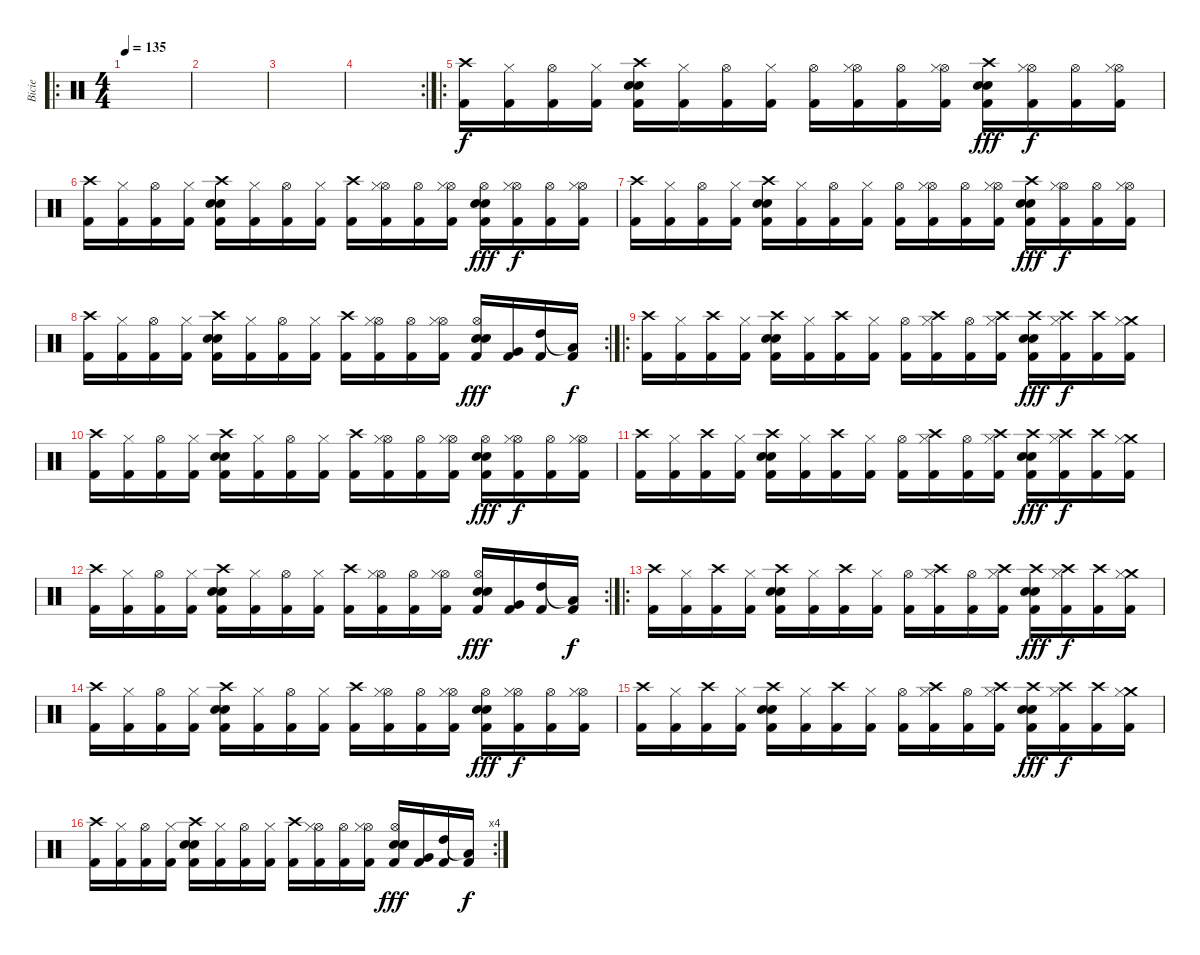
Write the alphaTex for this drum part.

\track ("Bicie" "Bicie") {instrument percussion}
\staff {score}
\articulation defaults
\ro
\ts (4 4)
\tempo 135
\clef neutral
\ks c
|
|
|
\rc 2
|
\ro
("Crash high (hit)" "Kick (hit) 2").16 ("Hi-Hat (closed)" "Kick (hit) 2").16 ("Hi-Hat (open)" "Kick (hit) 2").16 ("Hi-Hat (closed)" "Kick (hit) 2").16 ("Crash high (hit)" "Electric Snare (hit)" "Electric Snare (hit)" "Kick (hit) 2").16 ("Hi-Hat (closed)" "Kick (hit) 2").16 ("Hi-Hat (open)" "Kick (hit) 2").16 ("Hi-Hat (closed)" "Kick (hit) 2").16 ("Hi-Hat (open)" "Kick (hit) 2").16 ("Hi-Hat (open)" "Hi-Hat (closed)" "Kick (hit) 2").16 ("Hi-Hat (open)" "Kick (hit) 2").16 ("Hi-Hat (open)" "Hi-Hat (closed)" "Kick (hit) 2").16 ("Crash high (hit)" "Electric Snare (hit)" "Electric Snare (hit)" "Kick (hit) 2").16{dy fff} ("Hi-Hat (open)" "Hi-Hat (closed)" "Kick (hit) 2").16{dy f} ("Hi-Hat (open)" "Kick (hit) 2").16 ("Hi-Hat (open)" "Hi-Hat (closed)" "Kick (hit) 2").16 |
("Crash high (hit)" "Kick (hit) 2").16 ("Hi-Hat (closed)" "Kick (hit) 2").16 ("Hi-Hat (open)" "Kick (hit) 2").16 ("Hi-Hat (closed)" "Kick (hit) 2").16 ("Crash high (hit)" "Electric Snare (hit)" "Electric Snare (hit)" "Kick (hit) 2").16 ("Hi-Hat (closed)" "Kick (hit) 2").16 ("Hi-Hat (open)" "Kick (hit) 2").16 ("Hi-Hat (closed)" "Kick (hit) 2").16 ("Crash high (hit)" "Kick (hit) 2").16 ("Hi-Hat (open)" "Hi-Hat (closed)" "Kick (hit) 2").16 ("Hi-Hat (open)" "Kick (hit) 2").16 ("Hi-Hat (open)" "Hi-Hat (closed)" "Kick (hit) 2").16 ("Hi-Hat (open)" "Electric Snare (hit)" "Electric Snare (hit)" "Kick (hit) 2").16{dy fff} ("Hi-Hat (open)" "Hi-Hat (closed)" "Kick (hit) 2").16{dy f} ("Hi-Hat (open)" "Kick (hit) 2").16 ("Hi-Hat (open)" "Hi-Hat (closed)" "Kick (hit) 2").16 |
("Crash high (hit)" "Kick (hit) 2").16 ("Hi-Hat (closed)" "Kick (hit) 2").16 ("Hi-Hat (open)" "Kick (hit) 2").16 ("Hi-Hat (closed)" "Kick (hit) 2").16 ("Crash high (hit)" "Electric Snare (hit)" "Electric Snare (hit)" "Kick (hit) 2").16 ("Hi-Hat (closed)" "Kick (hit) 2").16 ("Hi-Hat (open)" "Kick (hit) 2").16 ("Hi-Hat (closed)" "Kick (hit) 2").16 ("Hi-Hat (open)" "Kick (hit) 2").16 ("Hi-Hat (open)" "Hi-Hat (closed)" "Kick (hit) 2").16 ("Hi-Hat (open)" "Kick (hit) 2").16 ("Hi-Hat (open)" "Hi-Hat (closed)" "Kick (hit) 2").16 ("Crash high (hit)" "Electric Snare (hit)" "Electric Snare (hit)" "Kick (hit) 2").16{dy fff} ("Hi-Hat (open)" "Hi-Hat (closed)" "Kick (hit) 2").16{dy f} ("Hi-Hat (open)" "Kick (hit) 2").16 ("Hi-Hat (open)" "Hi-Hat (closed)" "Kick (hit) 2").16 |
\rc 2
("Crash high (hit)" "Kick (hit) 2").16 ("Hi-Hat (closed)" "Kick (hit) 2").16 ("Hi-Hat (open)" "Kick (hit) 2").16 ("Hi-Hat (closed)" "Kick (hit) 2").16 ("Crash high (hit)" "Electric Snare (hit)" "Electric Snare (hit)" "Kick (hit) 2").16 ("Hi-Hat (closed)" "Kick (hit) 2").16 ("Hi-Hat (open)" "Kick (hit) 2").16 ("Hi-Hat (closed)" "Kick (hit) 2").16 ("Crash high (hit)" "Kick (hit) 2").16 ("Hi-Hat (open)" "Hi-Hat (closed)" "Kick (hit) 2").16 ("Hi-Hat (open)" "Kick (hit) 2").16 ("Hi-Hat (open)" "Hi-Hat (closed)" "Kick (hit) 2").16 ("Hi-Hat (open)" "Electric Snare (hit)" "Electric Snare (hit)" "Kick (hit) 2").16{dy fff} ("Very Low Tom (hit)" "Kick (hit) 2").16 ("High Tom (hit)" "Kick (hit) 2").16 ("Low Tom (hit)"{t} "Kick (hit) 2").16{dy f} |
\ro
("Crash high (hit)" "Kick (hit) 2").16 ("Hi-Hat (closed)" "Kick (hit) 2").16 ("Crash high (hit)" "Kick (hit) 2").16 ("Hi-Hat (closed)" "Kick (hit) 2").16 ("Crash high (hit)" "Electric Snare (hit)" "Electric Snare (hit)" "Kick (hit) 2").16 ("Hi-Hat (closed)" "Kick (hit) 2").16 ("Crash high (hit)" "Kick (hit) 2").16 ("Hi-Hat (closed)" "Kick (hit) 2").16 ("Hi-Hat (open)" "Kick (hit) 2").16 ("Crash high (hit)" "Hi-Hat (closed)" "Kick (hit) 2").16 ("Hi-Hat (open)" "Kick (hit) 2").16 ("Crash high (hit)" "Hi-Hat (closed)" "Kick (hit) 2").16 ("Crash high (hit)" "Electric Snare (hit)" "Electric Snare (hit)" "Kick (hit) 2").16{dy fff} ("Crash high (hit)" "Hi-Hat (closed)" "Kick (hit) 2").16{dy f} ("Crash high (hit)" "Kick (hit) 2").16 ("Crash medium (hit)" "Hi-Hat (closed)" "Kick (hit) 2").16 |
("Crash high (hit)" "Kick (hit) 2").16 ("Hi-Hat (closed)" "Kick (hit) 2").16 ("Hi-Hat (open)" "Kick (hit) 2").16 ("Hi-Hat (closed)" "Kick (hit) 2").16 ("Crash high (hit)" "Electric Snare (hit)" "Electric Snare (hit)" "Kick (hit) 2").16 ("Hi-Hat (closed)" "Kick (hit) 2").16 ("Hi-Hat (open)" "Kick (hit) 2").16 ("Hi-Hat (closed)" "Kick (hit) 2").16 ("Crash high (hit)" "Kick (hit) 2").16 ("Hi-Hat (open)" "Hi-Hat (closed)" "Kick (hit) 2").16 ("Hi-Hat (open)" "Kick (hit) 2").16 ("Hi-Hat (open)" "Hi-Hat (closed)" "Kick (hit) 2").16 ("Hi-Hat (open)" "Electric Snare (hit)" "Electric Snare (hit)" "Kick (hit) 2").16{dy fff} ("Hi-Hat (open)" "Hi-Hat (closed)" "Kick (hit) 2").16{dy f} ("Hi-Hat (open)" "Kick (hit) 2").16 ("Hi-Hat (open)" "Hi-Hat (closed)" "Kick (hit) 2").16 |
("Crash high (hit)" "Kick (hit) 2").16 ("Hi-Hat (closed)" "Kick (hit) 2").16 ("Crash high (hit)" "Kick (hit) 2").16 ("Hi-Hat (closed)" "Kick (hit) 2").16 ("Crash high (hit)" "Electric Snare (hit)" "Electric Snare (hit)" "Kick (hit) 2").16 ("Hi-Hat (closed)" "Kick (hit) 2").16 ("Crash high (hit)" "Kick (hit) 2").16 ("Hi-Hat (closed)" "Kick (hit) 2").16 ("Hi-Hat (open)" "Kick (hit) 2").16 ("Crash high (hit)" "Hi-Hat (closed)" "Kick (hit) 2").16 ("Hi-Hat (open)" "Kick (hit) 2").16 ("Crash high (hit)" "Hi-Hat (closed)" "Kick (hit) 2").16 ("Crash high (hit)" "Electric Snare (hit)" "Electric Snare (hit)" "Kick (hit) 2").16{dy fff} ("Crash high (hit)" "Hi-Hat (closed)" "Kick (hit) 2").16{dy f} ("Crash high (hit)" "Kick (hit) 2").16 ("Crash medium (hit)" "Hi-Hat (closed)" "Kick (hit) 2").16 |
\rc 2
("Crash high (hit)" "Kick (hit) 2").16 ("Hi-Hat (closed)" "Kick (hit) 2").16 ("Hi-Hat (open)" "Kick (hit) 2").16 ("Hi-Hat (closed)" "Kick (hit) 2").16 ("Crash high (hit)" "Electric Snare (hit)" "Electric Snare (hit)" "Kick (hit) 2").16 ("Hi-Hat (closed)" "Kick (hit) 2").16 ("Hi-Hat (open)" "Kick (hit) 2").16 ("Hi-Hat (closed)" "Kick (hit) 2").16 ("Crash high (hit)" "Kick (hit) 2").16 ("Hi-Hat (open)" "Hi-Hat (closed)" "Kick (hit) 2").16 ("Hi-Hat (open)" "Kick (hit) 2").16 ("Hi-Hat (open)" "Hi-Hat (closed)" "Kick (hit) 2").16 ("Hi-Hat (open)" "Electric Snare (hit)" "Electric Snare (hit)" "Kick (hit) 2").16{dy fff} ("Very Low Tom (hit)" "Kick (hit) 2").16 ("High Tom (hit)" "Kick (hit) 2").16 ("Low Tom (hit)"{t} "Kick (hit) 2").16{dy f} |
\ro
("Crash high (hit)" "Kick (hit) 2").16{volume 10} ("Hi-Hat (closed)" "Kick (hit) 2").16 ("Crash high (hit)" "Kick (hit) 2").16 ("Hi-Hat (closed)" "Kick (hit) 2").16 ("Crash high (hit)" "Electric Snare (hit)" "Electric Snare (hit)" "Kick (hit) 2").16 ("Hi-Hat (closed)" "Kick (hit) 2").16 ("Crash high (hit)" "Kick (hit) 2").16 ("Hi-Hat (closed)" "Kick (hit) 2").16 ("Hi-Hat (open)" "Kick (hit) 2").16 ("Crash high (hit)" "Hi-Hat (closed)" "Kick (hit) 2").16 ("Hi-Hat (open)" "Kick (hit) 2").16 ("Crash high (hit)" "Hi-Hat (closed)" "Kick (hit) 2").16 ("Crash high (hit)" "Electric Snare (hit)" "Electric Snare (hit)" "Kick (hit) 2").16{dy fff} ("Crash high (hit)" "Hi-Hat (closed)" "Kick (hit) 2").16{dy f} ("Crash high (hit)" "Kick (hit) 2").16 ("Crash medium (hit)" "Hi-Hat (closed)" "Kick (hit) 2").16 |
("Crash high (hit)" "Kick (hit) 2").16 ("Hi-Hat (closed)" "Kick (hit) 2").16 ("Hi-Hat (open)" "Kick (hit) 2").16 ("Hi-Hat (closed)" "Kick (hit) 2").16 ("Crash high (hit)" "Electric Snare (hit)" "Electric Snare (hit)" "Kick (hit) 2").16 ("Hi-Hat (closed)" "Kick (hit) 2").16 ("Hi-Hat (open)" "Kick (hit) 2").16 ("Hi-Hat (closed)" "Kick (hit) 2").16 ("Crash high (hit)" "Kick (hit) 2").16 ("Hi-Hat (open)" "Hi-Hat (closed)" "Kick (hit) 2").16 ("Hi-Hat (open)" "Kick (hit) 2").16 ("Hi-Hat (open)" "Hi-Hat (closed)" "Kick (hit) 2").16 ("Hi-Hat (open)" "Electric Snare (hit)" "Electric Snare (hit)" "Kick (hit) 2").16{dy fff} ("Hi-Hat (open)" "Hi-Hat (closed)" "Kick (hit) 2").16{dy f} ("Hi-Hat (open)" "Kick (hit) 2").16 ("Hi-Hat (open)" "Hi-Hat (closed)" "Kick (hit) 2").16 |
("Crash high (hit)" "Kick (hit) 2").16 ("Hi-Hat (closed)" "Kick (hit) 2").16 ("Crash high (hit)" "Kick (hit) 2").16 ("Hi-Hat (closed)" "Kick (hit) 2").16 ("Crash high (hit)" "Electric Snare (hit)" "Electric Snare (hit)" "Kick (hit) 2").16 ("Hi-Hat (closed)" "Kick (hit) 2").16 ("Crash high (hit)" "Kick (hit) 2").16 ("Hi-Hat (closed)" "Kick (hit) 2").16 ("Hi-Hat (open)" "Kick (hit) 2").16 ("Crash high (hit)" "Hi-Hat (closed)" "Kick (hit) 2").16 ("Hi-Hat (open)" "Kick (hit) 2").16 ("Crash high (hit)" "Hi-Hat (closed)" "Kick (hit) 2").16 ("Crash high (hit)" "Electric Snare (hit)" "Electric Snare (hit)" "Kick (hit) 2").16{dy fff} ("Crash high (hit)" "Hi-Hat (closed)" "Kick (hit) 2").16{dy f} ("Crash high (hit)" "Kick (hit) 2").16 ("Crash medium (hit)" "Hi-Hat (closed)" "Kick (hit) 2").16 |
\rc 4
("Crash high (hit)" "Kick (hit) 2").16 ("Hi-Hat (closed)" "Kick (hit) 2").16 ("Hi-Hat (open)" "Kick (hit) 2").16 ("Hi-Hat (closed)" "Kick (hit) 2").16 ("Crash high (hit)" "Electric Snare (hit)" "Electric Snare (hit)" "Kick (hit) 2").16 ("Hi-Hat (closed)" "Kick (hit) 2").16 ("Hi-Hat (open)" "Kick (hit) 2").16 ("Hi-Hat (closed)" "Kick (hit) 2").16 ("Crash high (hit)" "Kick (hit) 2").16 ("Hi-Hat (open)" "Hi-Hat (closed)" "Kick (hit) 2").16 ("Hi-Hat (open)" "Kick (hit) 2").16 ("Hi-Hat (open)" "Hi-Hat (closed)" "Kick (hit) 2").16 ("Hi-Hat (open)" "Electric Snare (hit)" "Electric Snare (hit)" "Kick (hit) 2").16{dy fff} ("Very Low Tom (hit)" "Kick (hit) 2").16 ("High Tom (hit)" "Kick (hit) 2").16 ("Low Tom (hit)"{t} "Kick (hit) 2").16{dy f}
